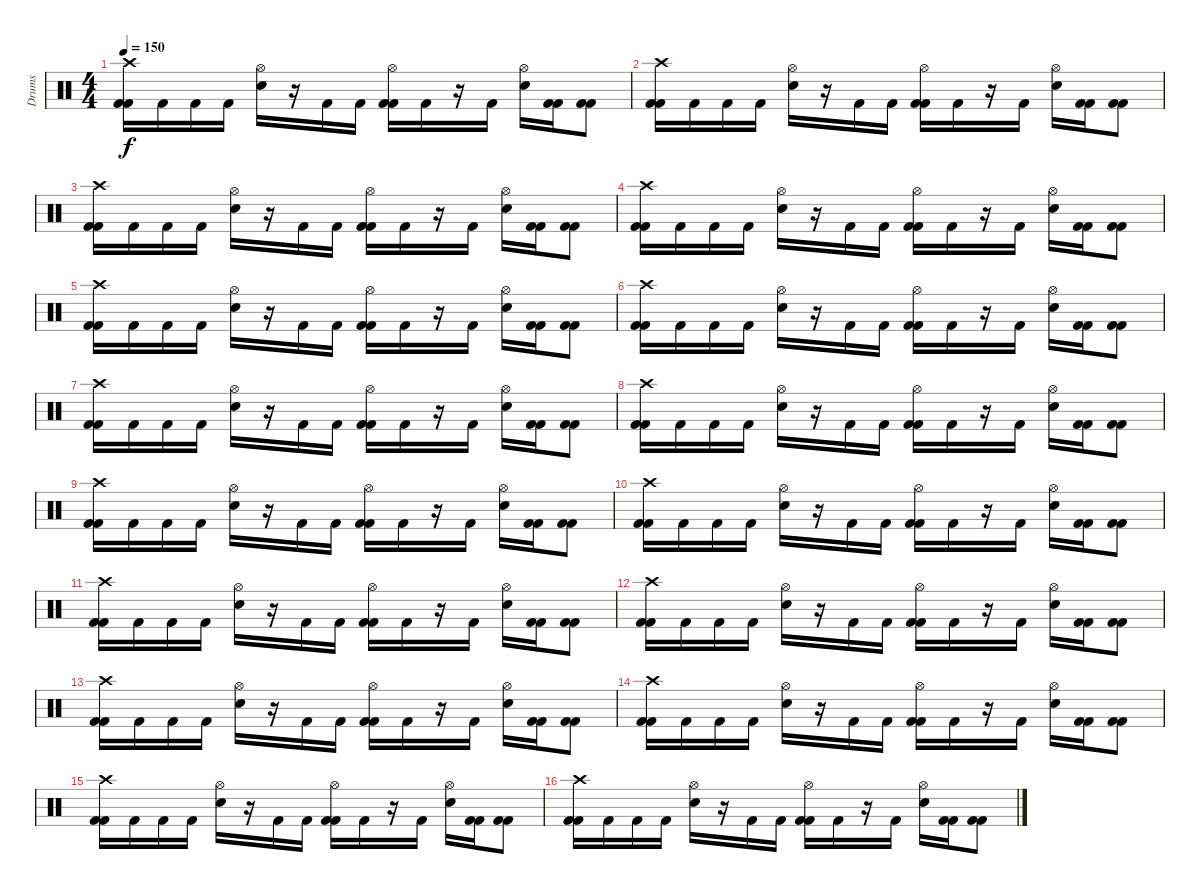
\track ("Drums" "Drums") {instrument percussion}
\staff {score}
\articulation defaults
\ts (4 4)
\tempo 150
\clef neutral
\ks c
("Crash high (hit)" "Kick (hit) 2" "Kick (hit) 2").16{dy f} "Kick (hit) 2".16 "Kick (hit) 2".16 "Kick (hit) 2".16 ("Electric Snare (hit)" "Hi-Hat (open)").16 r.16 "Kick (hit) 2".16 "Kick (hit) 2".16 ("Hi-Hat (open)" "Kick (hit) 2" "Kick (hit) 2").16 "Kick (hit) 2".16 r.16 "Kick (hit) 2".16 ("Electric Snare (hit)" "Hi-Hat (open)").16 ("Kick (hit) 2" "Kick (hit) 2").16 ("Kick (hit) 2" "Kick (hit) 2").8 |
("Crash high (hit)" "Kick (hit) 2" "Kick (hit) 2").16 "Kick (hit) 2".16 "Kick (hit) 2".16 "Kick (hit) 2".16 ("Electric Snare (hit)" "Hi-Hat (open)").16 r.16 "Kick (hit) 2".16 "Kick (hit) 2".16 ("Hi-Hat (open)" "Kick (hit) 2" "Kick (hit) 2").16 "Kick (hit) 2".16 r.16 "Kick (hit) 2".16 ("Electric Snare (hit)" "Hi-Hat (open)").16 ("Kick (hit) 2" "Kick (hit) 2").16 ("Kick (hit) 2" "Kick (hit) 2").8 |
("Crash high (hit)" "Kick (hit) 2" "Kick (hit) 2").16 "Kick (hit) 2".16 "Kick (hit) 2".16 "Kick (hit) 2".16 ("Electric Snare (hit)" "Hi-Hat (open)").16 r.16 "Kick (hit) 2".16 "Kick (hit) 2".16 ("Hi-Hat (open)" "Kick (hit) 2" "Kick (hit) 2").16 "Kick (hit) 2".16 r.16 "Kick (hit) 2".16 ("Electric Snare (hit)" "Hi-Hat (open)").16 ("Kick (hit) 2" "Kick (hit) 2").16 ("Kick (hit) 2" "Kick (hit) 2").8 |
("Crash high (hit)" "Kick (hit) 2" "Kick (hit) 2").16 "Kick (hit) 2".16 "Kick (hit) 2".16 "Kick (hit) 2".16 ("Electric Snare (hit)" "Hi-Hat (open)").16 r.16 "Kick (hit) 2".16 "Kick (hit) 2".16 ("Hi-Hat (open)" "Kick (hit) 2" "Kick (hit) 2").16 "Kick (hit) 2".16 r.16 "Kick (hit) 2".16 ("Electric Snare (hit)" "Hi-Hat (open)").16 ("Kick (hit) 2" "Kick (hit) 2").16 ("Kick (hit) 2" "Kick (hit) 2").8 |
("Crash high (hit)" "Kick (hit) 2" "Kick (hit) 2").16 "Kick (hit) 2".16 "Kick (hit) 2".16 "Kick (hit) 2".16 ("Electric Snare (hit)" "Hi-Hat (open)").16 r.16 "Kick (hit) 2".16 "Kick (hit) 2".16 ("Hi-Hat (open)" "Kick (hit) 2" "Kick (hit) 2").16 "Kick (hit) 2".16 r.16 "Kick (hit) 2".16 ("Electric Snare (hit)" "Hi-Hat (open)").16 ("Kick (hit) 2" "Kick (hit) 2").16 ("Kick (hit) 2" "Kick (hit) 2").8 |
("Crash high (hit)" "Kick (hit) 2" "Kick (hit) 2").16 "Kick (hit) 2".16 "Kick (hit) 2".16 "Kick (hit) 2".16 ("Electric Snare (hit)" "Hi-Hat (open)").16 r.16 "Kick (hit) 2".16 "Kick (hit) 2".16 ("Hi-Hat (open)" "Kick (hit) 2" "Kick (hit) 2").16 "Kick (hit) 2".16 r.16 "Kick (hit) 2".16 ("Electric Snare (hit)" "Hi-Hat (open)").16 ("Kick (hit) 2" "Kick (hit) 2").16 ("Kick (hit) 2" "Kick (hit) 2").8 |
("Crash high (hit)" "Kick (hit) 2" "Kick (hit) 2").16 "Kick (hit) 2".16 "Kick (hit) 2".16 "Kick (hit) 2".16 ("Electric Snare (hit)" "Hi-Hat (open)").16 r.16 "Kick (hit) 2".16 "Kick (hit) 2".16 ("Hi-Hat (open)" "Kick (hit) 2" "Kick (hit) 2").16 "Kick (hit) 2".16 r.16 "Kick (hit) 2".16 ("Electric Snare (hit)" "Hi-Hat (open)").16 ("Kick (hit) 2" "Kick (hit) 2").16 ("Kick (hit) 2" "Kick (hit) 2").8 |
("Crash high (hit)" "Kick (hit) 2" "Kick (hit) 2").16 "Kick (hit) 2".16 "Kick (hit) 2".16 "Kick (hit) 2".16 ("Electric Snare (hit)" "Hi-Hat (open)").16 r.16 "Kick (hit) 2".16 "Kick (hit) 2".16 ("Hi-Hat (open)" "Kick (hit) 2" "Kick (hit) 2").16 "Kick (hit) 2".16 r.16 "Kick (hit) 2".16 ("Electric Snare (hit)" "Hi-Hat (open)").16 ("Kick (hit) 2" "Kick (hit) 2").16 ("Kick (hit) 2" "Kick (hit) 2").8 |
("Crash high (hit)" "Kick (hit) 2" "Kick (hit) 2").16 "Kick (hit) 2".16 "Kick (hit) 2".16 "Kick (hit) 2".16 ("Electric Snare (hit)" "Hi-Hat (open)").16 r.16 "Kick (hit) 2".16 "Kick (hit) 2".16 ("Hi-Hat (open)" "Kick (hit) 2" "Kick (hit) 2").16 "Kick (hit) 2".16 r.16 "Kick (hit) 2".16 ("Electric Snare (hit)" "Hi-Hat (open)").16 ("Kick (hit) 2" "Kick (hit) 2").16 ("Kick (hit) 2" "Kick (hit) 2").8 |
("Crash high (hit)" "Kick (hit) 2" "Kick (hit) 2").16 "Kick (hit) 2".16 "Kick (hit) 2".16 "Kick (hit) 2".16 ("Electric Snare (hit)" "Hi-Hat (open)").16 r.16 "Kick (hit) 2".16 "Kick (hit) 2".16 ("Hi-Hat (open)" "Kick (hit) 2" "Kick (hit) 2").16 "Kick (hit) 2".16 r.16 "Kick (hit) 2".16 ("Electric Snare (hit)" "Hi-Hat (open)").16 ("Kick (hit) 2" "Kick (hit) 2").16 ("Kick (hit) 2" "Kick (hit) 2").8 |
("Crash high (hit)" "Kick (hit) 2" "Kick (hit) 2").16 "Kick (hit) 2".16 "Kick (hit) 2".16 "Kick (hit) 2".16 ("Electric Snare (hit)" "Hi-Hat (open)").16 r.16 "Kick (hit) 2".16 "Kick (hit) 2".16 ("Hi-Hat (open)" "Kick (hit) 2" "Kick (hit) 2").16 "Kick (hit) 2".16 r.16 "Kick (hit) 2".16 ("Electric Snare (hit)" "Hi-Hat (open)").16 ("Kick (hit) 2" "Kick (hit) 2").16 ("Kick (hit) 2" "Kick (hit) 2").8 |
("Crash high (hit)" "Kick (hit) 2" "Kick (hit) 2").16 "Kick (hit) 2".16 "Kick (hit) 2".16 "Kick (hit) 2".16 ("Electric Snare (hit)" "Hi-Hat (open)").16 r.16 "Kick (hit) 2".16 "Kick (hit) 2".16 ("Hi-Hat (open)" "Kick (hit) 2" "Kick (hit) 2").16 "Kick (hit) 2".16 r.16 "Kick (hit) 2".16 ("Electric Snare (hit)" "Hi-Hat (open)").16 ("Kick (hit) 2" "Kick (hit) 2").16 ("Kick (hit) 2" "Kick (hit) 2").8 |
("Crash high (hit)" "Kick (hit) 2" "Kick (hit) 2").16 "Kick (hit) 2".16 "Kick (hit) 2".16 "Kick (hit) 2".16 ("Electric Snare (hit)" "Hi-Hat (open)").16 r.16 "Kick (hit) 2".16 "Kick (hit) 2".16 ("Hi-Hat (open)" "Kick (hit) 2" "Kick (hit) 2").16 "Kick (hit) 2".16 r.16 "Kick (hit) 2".16 ("Electric Snare (hit)" "Hi-Hat (open)").16 ("Kick (hit) 2" "Kick (hit) 2").16 ("Kick (hit) 2" "Kick (hit) 2").8 |
("Crash high (hit)" "Kick (hit) 2" "Kick (hit) 2").16 "Kick (hit) 2".16 "Kick (hit) 2".16 "Kick (hit) 2".16 ("Electric Snare (hit)" "Hi-Hat (open)").16 r.16 "Kick (hit) 2".16 "Kick (hit) 2".16 ("Hi-Hat (open)" "Kick (hit) 2" "Kick (hit) 2").16 "Kick (hit) 2".16 r.16 "Kick (hit) 2".16 ("Electric Snare (hit)" "Hi-Hat (open)").16 ("Kick (hit) 2" "Kick (hit) 2").16 ("Kick (hit) 2" "Kick (hit) 2").8 |
("Crash high (hit)" "Kick (hit) 2" "Kick (hit) 2").16 "Kick (hit) 2".16 "Kick (hit) 2".16 "Kick (hit) 2".16 ("Electric Snare (hit)" "Hi-Hat (open)").16 r.16 "Kick (hit) 2".16 "Kick (hit) 2".16 ("Hi-Hat (open)" "Kick (hit) 2" "Kick (hit) 2").16 "Kick (hit) 2".16 r.16 "Kick (hit) 2".16 ("Electric Snare (hit)" "Hi-Hat (open)").16 ("Kick (hit) 2" "Kick (hit) 2").16 ("Kick (hit) 2" "Kick (hit) 2").8 |
("Crash high (hit)" "Kick (hit) 2" "Kick (hit) 2").16 "Kick (hit) 2".16 "Kick (hit) 2".16 "Kick (hit) 2".16 ("Electric Snare (hit)" "Hi-Hat (open)").16 r.16 "Kick (hit) 2".16 "Kick (hit) 2".16 ("Hi-Hat (open)" "Kick (hit) 2" "Kick (hit) 2").16 "Kick (hit) 2".16 r.16 "Kick (hit) 2".16 ("Electric Snare (hit)" "Hi-Hat (open)").16 ("Kick (hit) 2" "Kick (hit) 2").16 ("Kick (hit) 2" "Kick (hit) 2").8
